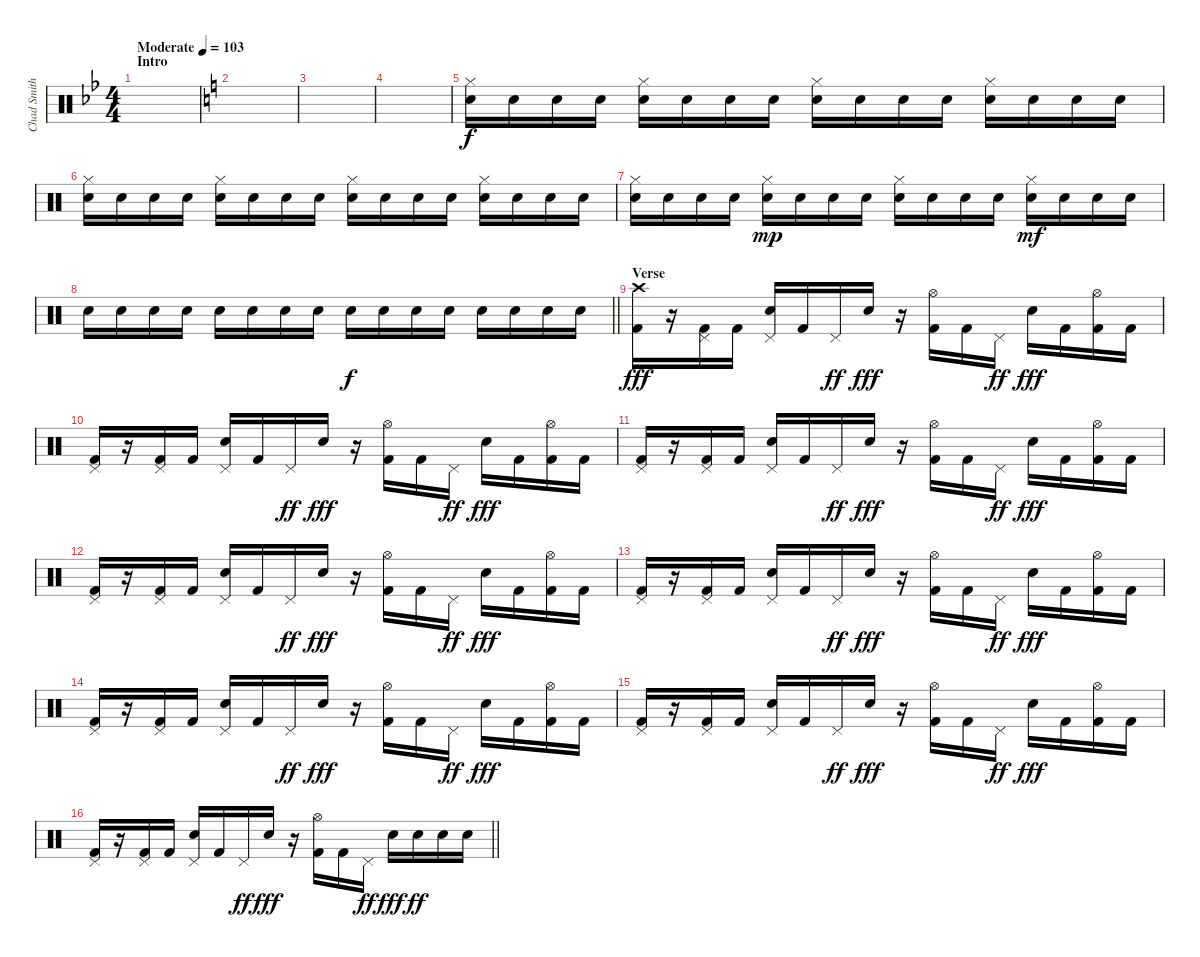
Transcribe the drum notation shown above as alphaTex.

\track ("Chad Smith (Drums)" "Chad Smith") {instrument percussion}
\staff {score}
\articulation defaults
\ts (4 4)
\section ("" "Intro")
\tempo (103 "Moderate")
\clef neutral
\ks bb
|
\ks c
|
|
|
("Hi-Hat (closed)" "Snare (hit) 2").16 "Snare (hit) 2".16 "Snare (hit) 2".16 "Snare (hit) 2".16 ("Hi-Hat (closed)" "Snare (hit) 2").16 "Snare (hit) 2".16 "Snare (hit) 2".16 "Snare (hit) 2".16 ("Hi-Hat (closed)" "Snare (hit) 2").16 "Snare (hit) 2".16 "Snare (hit) 2".16 "Snare (hit) 2".16 ("Hi-Hat (closed)" "Snare (hit) 2").16 "Snare (hit) 2".16 "Snare (hit) 2".16 "Snare (hit) 2".16 |
("Hi-Hat (closed)" "Snare (hit) 2").16 "Snare (hit) 2".16 "Snare (hit) 2".16 "Snare (hit) 2".16 ("Hi-Hat (closed)" "Snare (hit) 2").16 "Snare (hit) 2".16 "Snare (hit) 2".16 "Snare (hit) 2".16 ("Hi-Hat (closed)" "Snare (hit) 2").16 "Snare (hit) 2".16 "Snare (hit) 2".16 "Snare (hit) 2".16 ("Hi-Hat (closed)" "Snare (hit) 2").16 "Snare (hit) 2".16 "Snare (hit) 2".16 "Snare (hit) 2".16 |
("Hi-Hat (closed)" "Snare (hit) 2").16 "Snare (hit) 2".16 "Snare (hit) 2".16 "Snare (hit) 2".16 ("Hi-Hat (closed)" "Snare (hit) 2").16{dy mp} "Snare (hit) 2".16 "Snare (hit) 2".16 "Snare (hit) 2".16 ("Hi-Hat (closed)" "Snare (hit) 2").16 "Snare (hit) 2".16 "Snare (hit) 2".16 "Snare (hit) 2".16 ("Hi-Hat (closed)" "Snare (hit) 2").16{dy mf} "Snare (hit) 2".16 "Snare (hit) 2".16 "Snare (hit) 2".16 |
\barLineRight lightlight "Snare (hit) 2".16 "Snare (hit) 2".16 "Snare (hit) 2".16 "Snare (hit) 2".16 "Snare (hit) 2".16 "Snare (hit) 2".16 "Snare (hit) 2".16 "Snare (hit) 2".16 "Snare (hit) 2".16{dy f} "Snare (hit) 2".16 "Snare (hit) 2".16 "Snare (hit) 2".16 "Snare (hit) 2".16 "Snare (hit) 2".16 "Snare (hit) 2".16 "Snare (hit) 2".16
|
\section ("" "Verse")
("Crash high (hit)" "Kick (hit) 2").16{dy fff} r.16 ("Pedal Hi-Hat (hit)" "Kick (hit) 2").16 "Kick (hit) 2".16 ("Pedal Hi-Hat (hit)" "Snare (hit) 2").16 "Kick (hit) 2".16 "Pedal Hi-Hat (hit)".16{dy ff} "Snare (hit) 2".16{dy fff} r.16 ("Hi-Hat (open)" "Kick (hit) 2").16 "Kick (hit) 2".16 "Pedal Hi-Hat (hit)".16{dy ff} "Snare (hit) 2".16{dy fff} "Kick (hit) 2".16 ("Hi-Hat (open)" "Kick (hit) 2").16 "Kick (hit) 2".16 |
("Pedal Hi-Hat (hit)" "Kick (hit) 2").16 r.16 ("Pedal Hi-Hat (hit)" "Kick (hit) 2").16 "Kick (hit) 2".16 ("Pedal Hi-Hat (hit)" "Snare (hit) 2").16 "Kick (hit) 2".16 "Pedal Hi-Hat (hit)".16{dy ff} "Snare (hit) 2".16{dy fff} r.16 ("Hi-Hat (open)" "Kick (hit) 2").16 "Kick (hit) 2".16 "Pedal Hi-Hat (hit)".16{dy ff} "Snare (hit) 2".16{dy fff} "Kick (hit) 2".16 ("Hi-Hat (open)" "Kick (hit) 2").16 "Kick (hit) 2".16 |
("Pedal Hi-Hat (hit)" "Kick (hit) 2").16 r.16 ("Pedal Hi-Hat (hit)" "Kick (hit) 2").16 "Kick (hit) 2".16 ("Pedal Hi-Hat (hit)" "Snare (hit) 2").16 "Kick (hit) 2".16 "Pedal Hi-Hat (hit)".16{dy ff} "Snare (hit) 2".16{dy fff} r.16 ("Hi-Hat (open)" "Kick (hit) 2").16 "Kick (hit) 2".16 "Pedal Hi-Hat (hit)".16{dy ff} "Snare (hit) 2".16{dy fff} "Kick (hit) 2".16 ("Hi-Hat (open)" "Kick (hit) 2").16 "Kick (hit) 2".16 |
("Pedal Hi-Hat (hit)" "Kick (hit) 2").16 r.16 ("Pedal Hi-Hat (hit)" "Kick (hit) 2").16 "Kick (hit) 2".16 ("Pedal Hi-Hat (hit)" "Snare (hit) 2").16 "Kick (hit) 2".16 "Pedal Hi-Hat (hit)".16{dy ff} "Snare (hit) 2".16{dy fff} r.16 ("Hi-Hat (open)" "Kick (hit) 2").16 "Kick (hit) 2".16 "Pedal Hi-Hat (hit)".16{dy ff} "Snare (hit) 2".16{dy fff} "Kick (hit) 2".16 ("Hi-Hat (open)" "Kick (hit) 2").16 "Kick (hit) 2".16 |
("Pedal Hi-Hat (hit)" "Kick (hit) 2").16 r.16 ("Pedal Hi-Hat (hit)" "Kick (hit) 2").16 "Kick (hit) 2".16 ("Pedal Hi-Hat (hit)" "Snare (hit) 2").16 "Kick (hit) 2".16 "Pedal Hi-Hat (hit)".16{dy ff} "Snare (hit) 2".16{dy fff} r.16 ("Hi-Hat (open)" "Kick (hit) 2").16 "Kick (hit) 2".16 "Pedal Hi-Hat (hit)".16{dy ff} "Snare (hit) 2".16{dy fff} "Kick (hit) 2".16 ("Hi-Hat (open)" "Kick (hit) 2").16 "Kick (hit) 2".16 |
("Pedal Hi-Hat (hit)" "Kick (hit) 2").16 r.16 ("Pedal Hi-Hat (hit)" "Kick (hit) 2").16 "Kick (hit) 2".16 ("Pedal Hi-Hat (hit)" "Snare (hit) 2").16 "Kick (hit) 2".16 "Pedal Hi-Hat (hit)".16{dy ff} "Snare (hit) 2".16{dy fff} r.16 ("Hi-Hat (open)" "Kick (hit) 2").16 "Kick (hit) 2".16 "Pedal Hi-Hat (hit)".16{dy ff} "Snare (hit) 2".16{dy fff} "Kick (hit) 2".16 ("Hi-Hat (open)" "Kick (hit) 2").16 "Kick (hit) 2".16 |
("Pedal Hi-Hat (hit)" "Kick (hit) 2").16 r.16 ("Pedal Hi-Hat (hit)" "Kick (hit) 2").16 "Kick (hit) 2".16 ("Pedal Hi-Hat (hit)" "Snare (hit) 2").16 "Kick (hit) 2".16 "Pedal Hi-Hat (hit)".16{dy ff} "Snare (hit) 2".16{dy fff} r.16 ("Hi-Hat (open)" "Kick (hit) 2").16 "Kick (hit) 2".16 "Pedal Hi-Hat (hit)".16{dy ff} "Snare (hit) 2".16{dy fff} "Kick (hit) 2".16 ("Hi-Hat (open)" "Kick (hit) 2").16 "Kick (hit) 2".16 |
\barLineRight lightlight
("Pedal Hi-Hat (hit)" "Kick (hit) 2").16 r.16 ("Pedal Hi-Hat (hit)" "Kick (hit) 2").16 "Kick (hit) 2".16 ("Pedal Hi-Hat (hit)" "Snare (hit) 2").16 "Kick (hit) 2".16 "Pedal Hi-Hat (hit)".16{dy ff} "Snare (hit) 2".16{dy fff} r.16 ("Hi-Hat (open)" "Kick (hit) 2").16 "Kick (hit) 2".16 "Pedal Hi-Hat (hit)".16{dy ff} "Snare (hit) 2".16{dy fff} "Snare (hit) 2".16{dy ff} "Snare (hit) 2".16 "Snare (hit) 2".16
